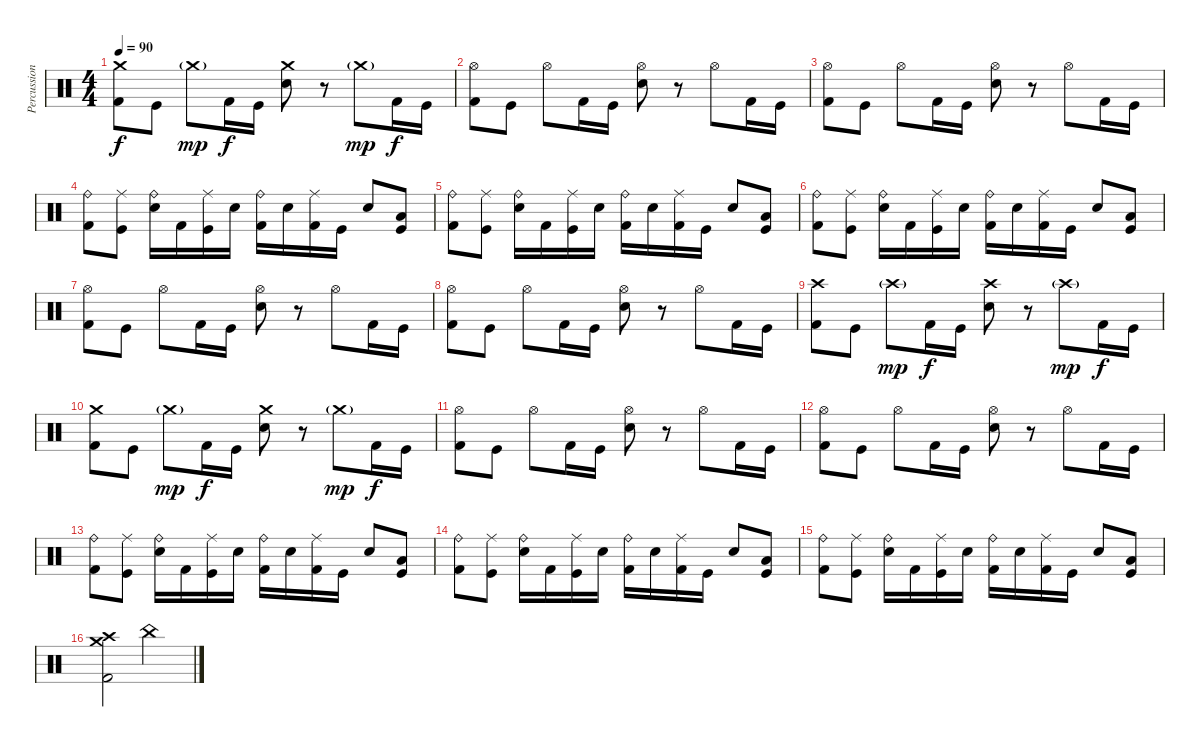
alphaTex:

\track ("Percussion" "Percussion") {instrument percussion}
\staff {score}
\articulation defaults
\ts (4 4)
\tempo 90
\clef neutral
\ks c
("Crash medium (hit)" "Kick (hit) 2").8{dy f} "Kick (hit)".8 "Crash medium (hit)"{g}.8{dy mp} "Kick (hit) 2".16{dy f} "Kick (hit)".16 ("Crash medium (hit)" "Electric Snare (hit)").8 r.8 "Crash medium (hit)"{g}.8{dy mp} "Kick (hit) 2".16{dy f} "Kick (hit)".16 |
("Hi-Hat (open)" "Kick (hit) 2").8 "Kick (hit)".8 "Hi-Hat (open)".8 "Kick (hit) 2".16 "Kick (hit)".16 ("Hi-Hat (open)" "Electric Snare (hit)").8 r.8 "Hi-Hat (open)".8 "Kick (hit) 2".16 "Kick (hit)".16 |
("Hi-Hat (open)" "Kick (hit) 2").8 "Kick (hit)".8 "Hi-Hat (open)".8 "Kick (hit) 2".16 "Kick (hit)".16 ("Hi-Hat (open)" "Electric Snare (hit)").8 r.8 "Hi-Hat (open)".8 "Kick (hit) 2".16 "Kick (hit)".16 |
("Ride (bell)" "Kick (hit) 2").8 ("Ride (middle)" "Kick (hit)").8 ("Ride (bell)" "Electric Snare (hit)").16 "Kick (hit) 2".16 ("Ride (middle)" "Kick (hit)").16 "Electric Snare (hit)".16 ("Ride (bell)" "Kick (hit) 2").16 "Electric Snare (hit)".16 ("Ride (middle)" "Kick (hit) 2").16 "Kick (hit)".16 "Electric Snare (hit)".8 ("Low Tom (hit)" "Kick (hit)").8 |
("Ride (bell)" "Kick (hit) 2").8 ("Ride (middle)" "Kick (hit)").8 ("Ride (bell)" "Electric Snare (hit)").16 "Kick (hit) 2".16 ("Ride (middle)" "Kick (hit)").16 "Electric Snare (hit)".16 ("Ride (bell)" "Kick (hit) 2").16 "Electric Snare (hit)".16 ("Ride (middle)" "Kick (hit) 2").16 "Kick (hit)".16 "Electric Snare (hit)".8 ("Low Tom (hit)" "Kick (hit)").8 |
("Ride (bell)" "Kick (hit) 2").8 ("Ride (middle)" "Kick (hit)").8 ("Ride (bell)" "Electric Snare (hit)").16 "Kick (hit) 2".16 ("Ride (middle)" "Kick (hit)").16 "Electric Snare (hit)".16 ("Ride (bell)" "Kick (hit) 2").16 "Electric Snare (hit)".16 ("Ride (middle)" "Kick (hit) 2").16 "Kick (hit)".16 "Electric Snare (hit)".8 ("Low Tom (hit)" "Kick (hit)").8 |
("Hi-Hat (open)" "Kick (hit) 2").8 "Kick (hit)".8 "Hi-Hat (open)".8 "Kick (hit) 2".16 "Kick (hit)".16 ("Hi-Hat (open)" "Electric Snare (hit)").8 r.8 "Hi-Hat (open)".8 "Kick (hit) 2".16 "Kick (hit)".16 |
("Hi-Hat (open)" "Kick (hit) 2").8 "Kick (hit)".8 "Hi-Hat (open)".8 "Kick (hit) 2".16 "Kick (hit)".16 ("Hi-Hat (open)" "Electric Snare (hit)").8 r.8 "Hi-Hat (open)".8 "Kick (hit) 2".16 "Kick (hit)".16 |
("Crash high (hit)" "Kick (hit) 2").8 "Kick (hit)".8 "Crash high (hit)"{g}.8{dy mp} "Kick (hit) 2".16{dy f} "Kick (hit)".16 ("Crash high (hit)" "Electric Snare (hit)").8 r.8 "Crash high (hit)"{g}.8{dy mp} "Kick (hit) 2".16{dy f} "Kick (hit)".16 |
("Crash medium (hit)" "Kick (hit) 2").8 "Kick (hit)".8 "Crash medium (hit)"{g}.8{dy mp} "Kick (hit) 2".16{dy f} "Kick (hit)".16 ("Crash medium (hit)" "Electric Snare (hit)").8 r.8 "Crash medium (hit)"{g}.8{dy mp} "Kick (hit) 2".16{dy f} "Kick (hit)".16 |
("Hi-Hat (open)" "Kick (hit) 2").8 "Kick (hit)".8 "Hi-Hat (open)".8 "Kick (hit) 2".16 "Kick (hit)".16 ("Hi-Hat (open)" "Electric Snare (hit)").8 r.8 "Hi-Hat (open)".8 "Kick (hit) 2".16 "Kick (hit)".16 |
("Hi-Hat (open)" "Kick (hit) 2").8 "Kick (hit)".8 "Hi-Hat (open)".8 "Kick (hit) 2".16 "Kick (hit)".16 ("Hi-Hat (open)" "Electric Snare (hit)").8 r.8 "Hi-Hat (open)".8 "Kick (hit) 2".16 "Kick (hit)".16 |
("Ride (bell)" "Kick (hit) 2").8 ("Ride (middle)" "Kick (hit)").8 ("Ride (bell)" "Electric Snare (hit)").16 "Kick (hit) 2".16 ("Ride (middle)" "Kick (hit)").16 "Electric Snare (hit)".16 ("Ride (bell)" "Kick (hit) 2").16 "Electric Snare (hit)".16 ("Ride (middle)" "Kick (hit) 2").16 "Kick (hit)".16 "Electric Snare (hit)".8 ("Low Tom (hit)" "Kick (hit)").8 |
("Ride (bell)" "Kick (hit) 2").8 ("Ride (middle)" "Kick (hit)").8 ("Ride (bell)" "Electric Snare (hit)").16 "Kick (hit) 2".16 ("Ride (middle)" "Kick (hit)").16 "Electric Snare (hit)".16 ("Ride (bell)" "Kick (hit) 2").16 "Electric Snare (hit)".16 ("Ride (middle)" "Kick (hit) 2").16 "Kick (hit)".16 "Electric Snare (hit)".8 ("Low Tom (hit)" "Kick (hit)").8 |
("Ride (bell)" "Kick (hit) 2").8 ("Ride (middle)" "Kick (hit)").8 ("Ride (bell)" "Electric Snare (hit)").16 "Kick (hit) 2".16 ("Ride (middle)" "Kick (hit)").16 "Electric Snare (hit)".16 ("Ride (bell)" "Kick (hit) 2").16 "Electric Snare (hit)".16 ("Ride (middle)" "Kick (hit) 2").16 "Kick (hit)".16 "Electric Snare (hit)".8 ("Low Tom (hit)" "Kick (hit)").8 |
("Crash medium (hit)" "Crash high (hit)" "Kick (hit) 2").2 "China (hit)".2
